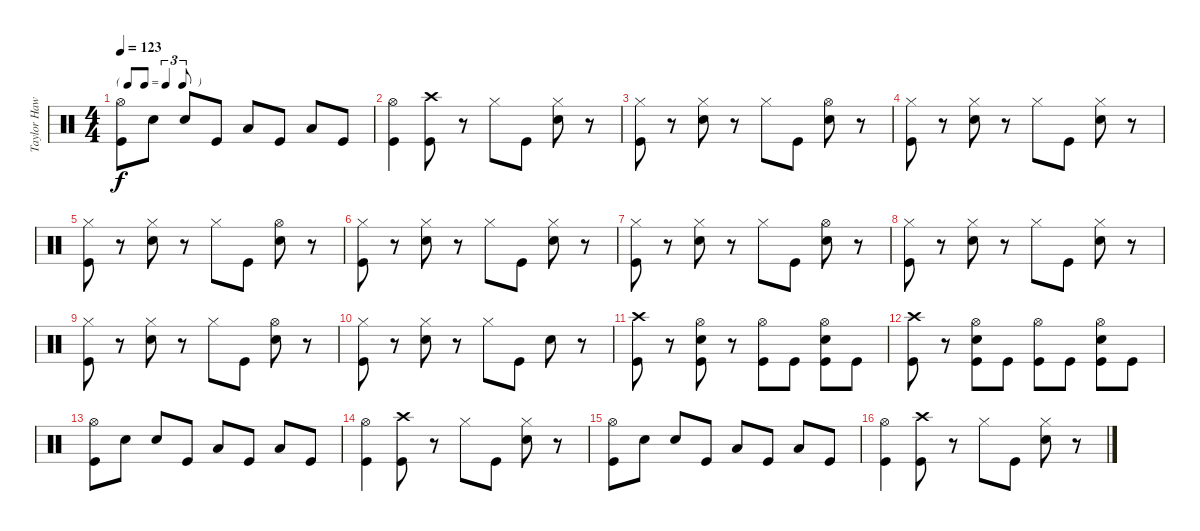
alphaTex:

\track ("Taylor Hawkins - Drums" "Taylor Haw") {instrument percussion}
\staff {score}
\articulation defaults
\ts (4 4)
\tf triplet8th
\tempo 123
\clef neutral
\ks c
("Hi-Hat (open)" "Kick (hit)").8{dy f} "Electric Snare (hit)".8 "Electric Snare (hit)".8 "Kick (hit)".8 "Low Tom (hit)".8 "Kick (hit)".8 "Low Floor Tom (hit)".8 "Kick (hit)".8 |
("Hi-Hat (open)" "Kick (hit)").4 ("Crash high (hit)" "Kick (hit)").8 r.8 "Hi-Hat (closed)".8 "Kick (hit)".8 ("Hi-Hat (closed)" "Electric Snare (hit)").8 r.8 |
("Hi-Hat (closed)" "Kick (hit)").8 r.8 ("Hi-Hat (closed)" "Electric Snare (hit)").8 r.8 "Hi-Hat (closed)".8 "Kick (hit)".8 ("Hi-Hat (open)" "Electric Snare (hit)").8 r.8 |
("Hi-Hat (closed)" "Kick (hit)").8 r.8 ("Hi-Hat (closed)" "Electric Snare (hit)").8 r.8 "Hi-Hat (closed)".8 "Kick (hit)".8 ("Hi-Hat (closed)" "Electric Snare (hit)").8 r.8 |
("Hi-Hat (closed)" "Kick (hit)").8 r.8 ("Hi-Hat (closed)" "Electric Snare (hit)").8 r.8 "Hi-Hat (closed)".8 "Kick (hit)".8 ("Hi-Hat (open)" "Electric Snare (hit)").8 r.8 |
("Hi-Hat (closed)" "Kick (hit)").8 r.8 ("Hi-Hat (closed)" "Electric Snare (hit)").8 r.8 "Hi-Hat (closed)".8 "Kick (hit)".8 ("Hi-Hat (closed)" "Electric Snare (hit)").8 r.8 |
("Hi-Hat (closed)" "Kick (hit)").8 r.8 ("Hi-Hat (closed)" "Electric Snare (hit)").8 r.8 "Hi-Hat (closed)".8 "Kick (hit)".8 ("Hi-Hat (open)" "Electric Snare (hit)").8 r.8 |
("Hi-Hat (closed)" "Kick (hit)").8 r.8 ("Hi-Hat (closed)" "Electric Snare (hit)").8 r.8 "Hi-Hat (closed)".8 "Kick (hit)".8 ("Hi-Hat (closed)" "Electric Snare (hit)").8 r.8 |
("Hi-Hat (closed)" "Kick (hit)").8 r.8 ("Hi-Hat (closed)" "Electric Snare (hit)").8 r.8 "Hi-Hat (closed)".8 "Kick (hit)".8 ("Hi-Hat (open)" "Electric Snare (hit)").8 r.8 |
("Hi-Hat (closed)" "Kick (hit)").8 r.8 ("Hi-Hat (closed)" "Electric Snare (hit)").8 r.8 "Hi-Hat (closed)".8 "Kick (hit)".8 "Electric Snare (hit)".8 r.8 |
("Crash high (hit)" "Kick (hit)").8 r.8 ("Hi-Hat (open)" "Electric Snare (hit)" "Kick (hit)").8 r.8 ("Hi-Hat (open)" "Kick (hit)").8 "Kick (hit)".8 ("Hi-Hat (open)" "Electric Snare (hit)" "Kick (hit)").8 "Kick (hit)".8 |
("Crash high (hit)" "Kick (hit)").8 r.8 ("Hi-Hat (open)" "Electric Snare (hit)" "Kick (hit)").8 "Kick (hit)".8 ("Hi-Hat (open)" "Kick (hit)").8 "Kick (hit)".8 ("Hi-Hat (open)" "Electric Snare (hit)" "Kick (hit)").8 "Kick (hit)".8 |
("Hi-Hat (open)" "Kick (hit)").8 "Electric Snare (hit)".8 "Electric Snare (hit)".8 "Kick (hit)".8 "Low Tom (hit)".8 "Kick (hit)".8 "Low Floor Tom (hit)".8 "Kick (hit)".8 |
("Hi-Hat (open)" "Kick (hit)").4 ("Crash high (hit)" "Kick (hit)").8 r.8 "Hi-Hat (closed)".8 "Kick (hit)".8 ("Hi-Hat (closed)" "Electric Snare (hit)").8 r.8 |
("Hi-Hat (open)" "Kick (hit)").8 "Electric Snare (hit)".8 "Electric Snare (hit)".8 "Kick (hit)".8 "Low Tom (hit)".8 "Kick (hit)".8 "Low Floor Tom (hit)".8 "Kick (hit)".8 |
("Hi-Hat (open)" "Kick (hit)").4 ("Crash high (hit)" "Kick (hit)").8 r.8 "Hi-Hat (closed)".8 "Kick (hit)".8 ("Hi-Hat (closed)" "Electric Snare (hit)").8 r.8
